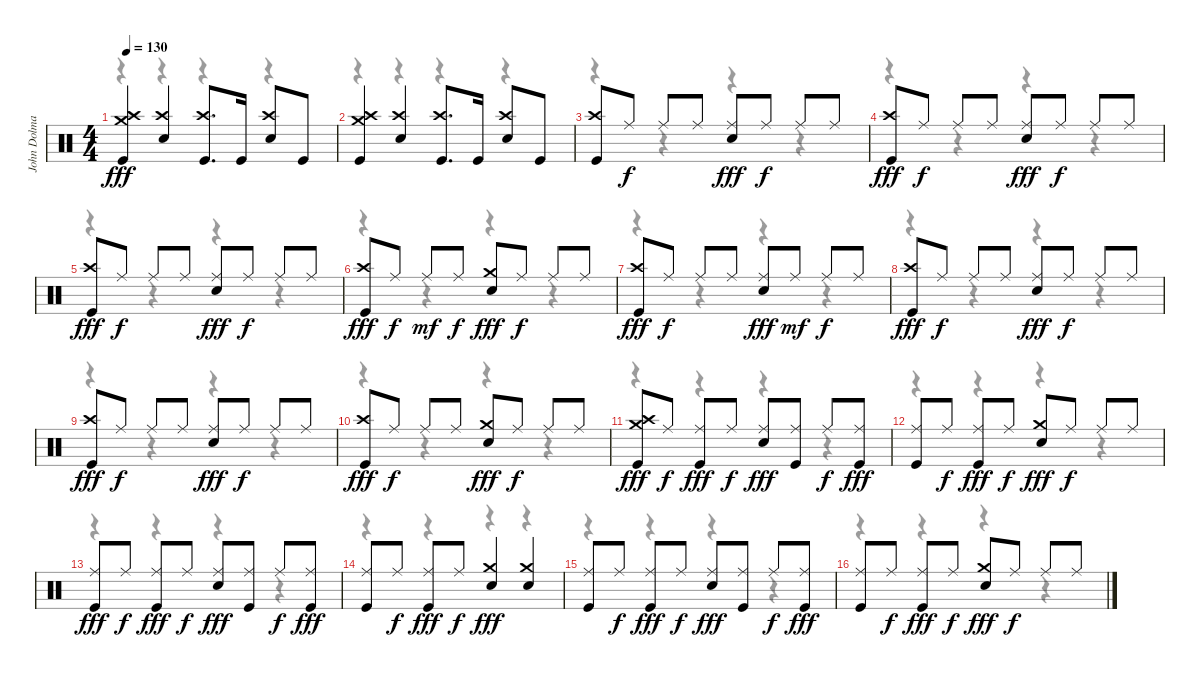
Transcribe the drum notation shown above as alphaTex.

\track ("John Dolmayan" "John Dolma") {instrument percussion}
\staff {score}
\articulation defaults
\voice
\ts (4 4)
\tempo 130
\clef neutral
\ks c
("Crash medium (hit)" "Crash high (hit)" "Kick (hit)").4{dy fff} ("Crash high (hit)" "Snare (hit) 2").4 ("Crash high (hit)" "Kick (hit)").8{d} "Kick (hit)".16 ("Crash high (hit)" "Snare (hit) 2").8 "Kick (hit)".8 |
("Crash medium (hit)" "Crash high (hit)" "Kick (hit)").4 ("Crash high (hit)" "Snare (hit) 2").4 ("Crash high (hit)" "Kick (hit)").8{d} "Kick (hit)".16 ("Crash high (hit)" "Snare (hit) 2").8 "Kick (hit)".8 |
("Crash high (hit)" "Kick (hit)").8 "Ride (middle)".8{dy f} "Ride (middle)".8 "Ride (middle)".8 ("Ride (middle)" "Snare (hit) 2").8{dy fff} "Ride (middle)".8{dy f} "Ride (middle)".8 "Ride (middle)".8 |
("Crash high (hit)" "Kick (hit)").8{dy fff} "Ride (middle)".8{dy f} "Ride (middle)".8 "Ride (middle)".8 ("Ride (middle)" "Snare (hit) 2").8{dy fff} "Ride (middle)".8{dy f} "Ride (middle)".8 "Ride (middle)".8 |
("Crash high (hit)" "Kick (hit)").8{dy fff} "Ride (middle)".8{dy f} "Ride (middle)".8 "Ride (middle)".8 ("Ride (middle)" "Snare (hit) 2").8{dy fff} "Ride (middle)".8{dy f} "Ride (middle)".8 "Ride (middle)".8 |
("Crash high (hit)" "Kick (hit)").8{dy fff} "Ride (middle)".8{dy f} "Ride (middle)".8{dy mf} "Ride (middle)".8{dy f} ("Crash medium (hit)" "Snare (hit) 2").8{dy fff} "Ride (middle)".8{dy f} "Ride (middle)".8 "Ride (middle)".8 |
("Crash high (hit)" "Kick (hit)").8{dy fff} "Ride (middle)".8{dy f} "Ride (middle)".8 "Ride (middle)".8 ("Ride (middle)" "Snare (hit) 2").8{dy fff} "Ride (middle)".8{dy mf} "Ride (middle)".8{dy f} "Ride (middle)".8 |
("Crash high (hit)" "Kick (hit)").8{dy fff} "Ride (middle)".8{dy f} "Ride (middle)".8 "Ride (middle)".8 ("Ride (middle)" "Snare (hit) 2").8{dy fff} "Ride (middle)".8{dy f} "Ride (middle)".8 "Ride (middle)".8 |
("Crash high (hit)" "Kick (hit)").8{dy fff} "Ride (middle)".8{dy f} "Ride (middle)".8 "Ride (middle)".8 ("Ride (middle)" "Snare (hit) 2").8{dy fff} "Ride (middle)".8{dy f} "Ride (middle)".8 "Ride (middle)".8 |
("Crash high (hit)" "Kick (hit)").8{dy fff} "Ride (middle)".8{dy f} "Ride (middle)".8 "Ride (middle)".8 ("Crash medium (hit)" "Snare (hit) 2").8{dy fff} "Ride (middle)".8{dy f} "Ride (middle)".8 "Ride (middle)".8 |
("Crash medium (hit)" "Crash high (hit)" "Kick (hit)").8{dy fff} "Ride (middle)".8{dy f} ("Ride (middle)" "Kick (hit)").8{dy fff} "Ride (middle)".8{dy f} ("Ride (middle)" "Snare (hit) 2").8{dy fff} ("Ride (middle)" "Kick (hit)").8 "Ride (middle)".8{dy f} ("Ride (middle)" "Kick (hit)").8{dy fff} |
("Ride (middle)" "Kick (hit)").8 "Ride (middle)".8{dy f} ("Ride (middle)" "Kick (hit)").8{dy fff} "Ride (middle)".8{dy f} ("Crash medium (hit)" "Snare (hit) 2").8{dy fff} "Ride (middle)".8{dy f} "Ride (middle)".8 "Ride (middle)".8 |
("Ride (middle)" "Kick (hit)").8{dy fff} "Ride (middle)".8{dy f} ("Ride (middle)" "Kick (hit)").8{dy fff} "Ride (middle)".8{dy f} ("Ride (middle)" "Snare (hit) 2").8{dy fff} ("Ride (middle)" "Kick (hit)").8 "Ride (middle)".8{dy f} ("Ride (middle)" "Kick (hit)").8{dy fff} |
("Ride (middle)" "Kick (hit)").8 "Ride (middle)".8{dy f} ("Ride (middle)" "Kick (hit)").8{dy fff} "Ride (middle)".8{dy f} ("Crash medium (hit)" "Snare (hit) 2").4{dy fff} ("Crash medium (hit)" "Snare (hit) 2").4 |
("Ride (middle)" "Kick (hit)").8 "Ride (middle)".8{dy f} ("Ride (middle)" "Kick (hit)").8{dy fff} "Ride (middle)".8{dy f} ("Ride (middle)" "Snare (hit) 2").8{dy fff} ("Ride (middle)" "Kick (hit)").8 "Ride (middle)".8{dy f} ("Ride (middle)" "Kick (hit)").8{dy fff} |
("Ride (middle)" "Kick (hit)").8 "Ride (middle)".8{dy f} ("Ride (middle)" "Kick (hit)").8{dy fff} "Ride (middle)".8{dy f} ("Crash medium (hit)" "Snare (hit) 2").8{dy fff} "Ride (middle)".8{dy f} "Ride (middle)".8 "Ride (middle)".8
\voice
\clef neutral
\ottava regular
\simile none
\ks c
r.4{dy f} r.4 r.4 r.4 |
r.4 r.4 r.4 r.4 |
r.4 r.4 r.4 r.4 |
r.4 r.4 r.4 r.4 |
r.4 r.4 r.4 r.4 |
r.4 r.4 r.4 r.4 |
r.4 r.4 r.4 r.4 |
r.4 r.4 r.4 r.4 |
r.4 r.4 r.4 r.4 |
r.4 r.4 r.4 r.4 |
r.4 r.4 r.4 r.4 |
r.4 r.4 r.4 r.4 |
r.4 r.4 r.4 r.4 |
r.4 r.4 r.4 r.4 |
r.4 r.4 r.4 r.4 |
r.4 r.4 r.4 r.4
